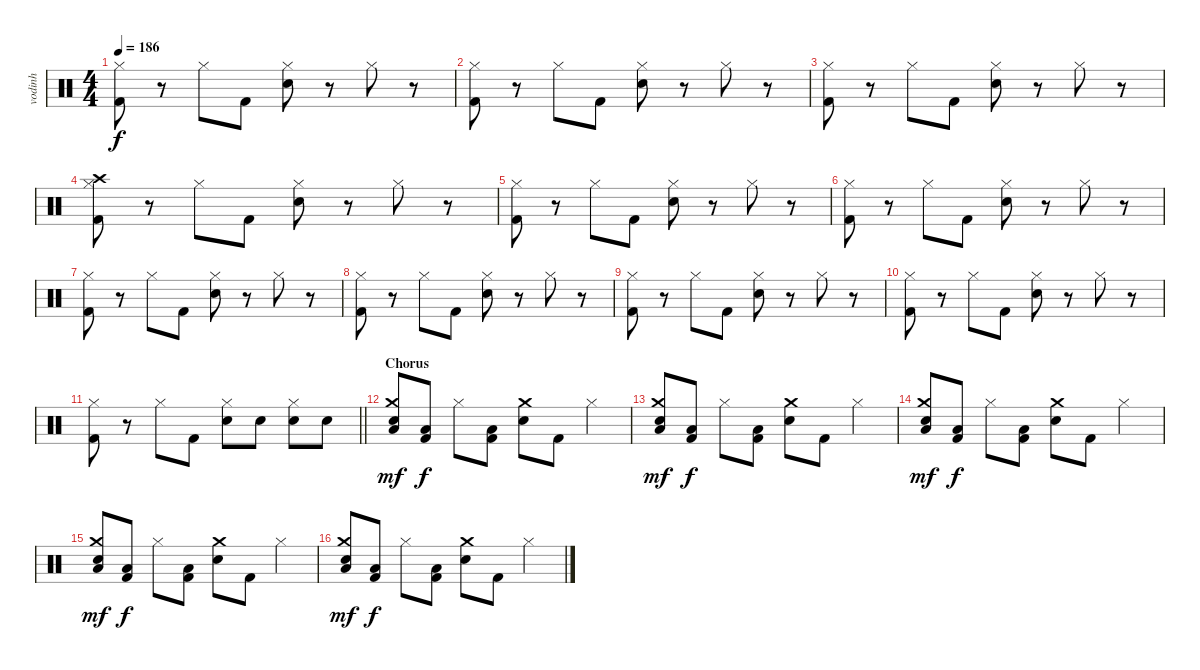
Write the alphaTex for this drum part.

\track ("vodinh" "vodinh") {instrument percussion}
\staff {score}
\articulation defaults
\ts (4 4)
\tempo 186
\clef neutral
\ks c
("Hi-Hat (closed)" "Kick (hit) 2").8{dy f} r.8 "Hi-Hat (closed)".8 "Kick (hit) 2".8 ("Hi-Hat (closed)" "Snare (hit) 2").8 r.8 "Hi-Hat (closed)".8 r.8 |
("Hi-Hat (closed)" "Kick (hit) 2").8 r.8 "Hi-Hat (closed)".8 "Kick (hit) 2".8 ("Hi-Hat (closed)" "Snare (hit) 2").8 r.8 "Hi-Hat (closed)".8 r.8 |
("Hi-Hat (closed)" "Kick (hit) 2").8 r.8 "Hi-Hat (closed)".8 "Kick (hit) 2".8 ("Hi-Hat (closed)" "Snare (hit) 2").8 r.8 "Hi-Hat (closed)".8 r.8 |
("Hi-Hat (closed)" "Crash high (hit)" "Kick (hit) 2").8 r.8 "Hi-Hat (closed)".8 "Kick (hit) 2".8 ("Hi-Hat (closed)" "Snare (hit) 2").8 r.8 "Hi-Hat (closed)".8 r.8 |
("Hi-Hat (closed)" "Kick (hit) 2").8 r.8 "Hi-Hat (closed)".8 "Kick (hit) 2".8 ("Hi-Hat (closed)" "Snare (hit) 2").8 r.8 "Hi-Hat (closed)".8 r.8 |
("Hi-Hat (closed)" "Kick (hit) 2").8 r.8 "Hi-Hat (closed)".8 "Kick (hit) 2".8 ("Hi-Hat (closed)" "Snare (hit) 2").8 r.8 "Hi-Hat (closed)".8 r.8 |
("Hi-Hat (closed)" "Kick (hit) 2").8 r.8 "Hi-Hat (closed)".8 "Kick (hit) 2".8 ("Hi-Hat (closed)" "Snare (hit) 2").8 r.8 "Hi-Hat (closed)".8 r.8 |
("Hi-Hat (closed)" "Kick (hit) 2").8 r.8 "Hi-Hat (closed)".8 "Kick (hit) 2".8 ("Hi-Hat (closed)" "Snare (hit) 2").8 r.8 "Hi-Hat (closed)".8 r.8 |
("Hi-Hat (closed)" "Kick (hit) 2").8 r.8 "Hi-Hat (closed)".8 "Kick (hit) 2".8 ("Hi-Hat (closed)" "Snare (hit) 2").8 r.8 "Hi-Hat (closed)".8 r.8 |
("Hi-Hat (closed)" "Kick (hit) 2").8 r.8 "Hi-Hat (closed)".8 "Kick (hit) 2".8 ("Hi-Hat (closed)" "Snare (hit) 2").8 r.8 "Hi-Hat (closed)".8 r.8 |
\barLineRight lightlight
("Hi-Hat (closed)" "Kick (hit) 2").8 r.8 "Hi-Hat (closed)".8 "Kick (hit) 2".8 ("Hi-Hat (closed)" "Snare (hit) 2").8 "Snare (hit) 2".8 ("Hi-Hat (closed)" "Snare (hit) 2").8 "Snare (hit) 2".8 |
\section ("" "Chorus")
("Snare (hit) 2" "Crash medium (hit)" "Low Floor Tom (hit)").8{dy mf} ("Kick (hit) 2" "Low Floor Tom (hit)").8{dy f} "Hi-Hat (closed)".8 ("Kick (hit) 2" "Low Floor Tom (hit)").8 ("Snare (hit) 2" "Crash medium (hit)").8 "Kick (hit) 2".8 "Hi-Hat (closed)".4 |
("Snare (hit) 2" "Crash medium (hit)" "Low Floor Tom (hit)").8{dy mf} ("Kick (hit) 2" "Low Floor Tom (hit)").8{dy f} "Hi-Hat (closed)".8 ("Kick (hit) 2" "Low Floor Tom (hit)").8 ("Snare (hit) 2" "Crash medium (hit)").8 "Kick (hit) 2".8 "Hi-Hat (closed)".4 |
("Snare (hit) 2" "Crash medium (hit)" "Low Floor Tom (hit)").8{dy mf} ("Kick (hit) 2" "Low Floor Tom (hit)").8{dy f} "Hi-Hat (closed)".8 ("Kick (hit) 2" "Low Floor Tom (hit)").8 ("Snare (hit) 2" "Crash medium (hit)").8 "Kick (hit) 2".8 "Hi-Hat (closed)".4 |
("Snare (hit) 2" "Crash medium (hit)" "Low Floor Tom (hit)").8{dy mf} ("Kick (hit) 2" "Low Floor Tom (hit)").8{dy f} "Hi-Hat (closed)".8 ("Kick (hit) 2" "Low Floor Tom (hit)").8 ("Snare (hit) 2" "Crash medium (hit)").8 "Kick (hit) 2".8 "Hi-Hat (closed)".4 |
("Snare (hit) 2" "Crash medium (hit)" "Low Floor Tom (hit)").8{dy mf} ("Kick (hit) 2" "Low Floor Tom (hit)").8{dy f} "Hi-Hat (closed)".8 ("Kick (hit) 2" "Low Floor Tom (hit)").8 ("Snare (hit) 2" "Crash medium (hit)").8 "Kick (hit) 2".8 "Hi-Hat (closed)".4
